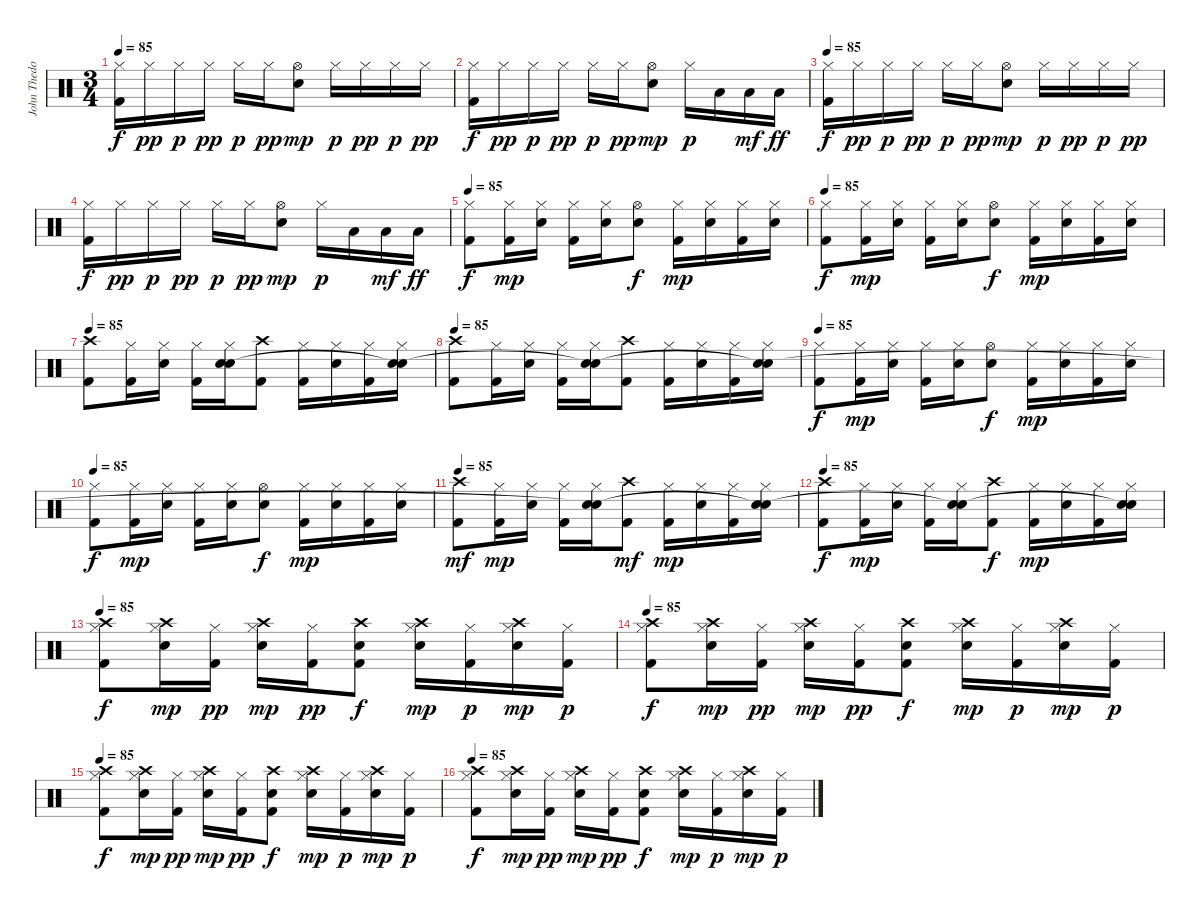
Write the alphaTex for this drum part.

\track ("John Thedore" "John Thedo") {instrument percussion}
\staff {score}
\articulation defaults
\ts (3 4)
\tempo 85
\clef neutral
\ks c
("Kick (hit) 2" "Hi-Hat (closed)").16{dy f volume 12} "Hi-Hat (closed)".16{dy pp} "Hi-Hat (closed)".16{dy p} "Hi-Hat (closed)".16{dy pp} "Hi-Hat (closed)".16{dy p} "Hi-Hat (closed)".16{dy pp} ("Hi-Hat (open)" "Electric Snare (hit)").8{dy mp} "Hi-Hat (closed)".16{dy p} "Hi-Hat (closed)".16{dy pp} "Hi-Hat (closed)".16{dy p} "Hi-Hat (closed)".16{dy pp} |
("Kick (hit) 2" "Hi-Hat (closed)").16{dy f} "Hi-Hat (closed)".16{dy pp} "Hi-Hat (closed)".16{dy p} "Hi-Hat (closed)".16{dy pp} "Hi-Hat (closed)".16{dy p} "Hi-Hat (closed)".16{dy pp} ("Hi-Hat (open)" "Electric Snare (hit)").8{dy mp} "Hi-Hat (closed)".16{dy p} "Low Tom (hit)".16 "Low Tom (hit)".16{dy mf} "Low Tom (hit)".16{dy ff} |
\tempo 85
("Kick (hit) 2" "Hi-Hat (closed)").16{dy f volume 12} "Hi-Hat (closed)".16{dy pp} "Hi-Hat (closed)".16{dy p} "Hi-Hat (closed)".16{dy pp} "Hi-Hat (closed)".16{dy p} "Hi-Hat (closed)".16{dy pp} ("Hi-Hat (open)" "Electric Snare (hit)").8{dy mp} "Hi-Hat (closed)".16{dy p} "Hi-Hat (closed)".16{dy pp} "Hi-Hat (closed)".16{dy p} "Hi-Hat (closed)".16{dy pp} |
("Kick (hit) 2" "Hi-Hat (closed)").16{dy f} "Hi-Hat (closed)".16{dy pp} "Hi-Hat (closed)".16{dy p} "Hi-Hat (closed)".16{dy pp} "Hi-Hat (closed)".16{dy p} "Hi-Hat (closed)".16{dy pp} ("Hi-Hat (open)" "Electric Snare (hit)").8{dy mp} "Hi-Hat (closed)".16{dy p} "Low Tom (hit)".16 "Low Tom (hit)".16{dy mf} "Low Tom (hit)".16{dy ff} |
\tempo 85
("Kick (hit) 2" "Hi-Hat (closed)").8{dy f volume 14} ("Hi-Hat (closed)" "Kick (hit) 2").16{dy mp} ("Hi-Hat (closed)" "Electric Snare (hit)").16 ("Hi-Hat (closed)" "Kick (hit) 2").16 ("Hi-Hat (closed)" "Electric Snare (hit)").16 ("Hi-Hat (open)" "Electric Snare (hit)").8{dy f} ("Hi-Hat (closed)" "Kick (hit) 2").16{dy mp} ("Hi-Hat (closed)" "Electric Snare (hit)").16 ("Hi-Hat (closed)" "Kick (hit) 2").16 ("Hi-Hat (closed)" "Electric Snare (hit)").16 |
\tempo 85
("Kick (hit) 2" "Hi-Hat (closed)").8{dy f} ("Hi-Hat (closed)" "Kick (hit) 2").16{dy mp} ("Hi-Hat (closed)" "Electric Snare (hit)").16 ("Hi-Hat (closed)" "Kick (hit) 2").16 ("Hi-Hat (closed)" "Electric Snare (hit)").16 ("Hi-Hat (open)" "Electric Snare (hit)").8{dy f} ("Hi-Hat (closed)" "Kick (hit) 2").16{dy mp} ("Hi-Hat (closed)" "Electric Snare (hit)").16 ("Hi-Hat (closed)" "Kick (hit) 2").16 ("Hi-Hat (closed)" "Electric Snare (hit)").16 |
\tempo 85
("Kick (hit) 2" "Crash high (hit)").8 ("Hi-Hat (closed)" "Kick (hit) 2").16 ("Hi-Hat (closed)" "Electric Snare (hit)").16 ("Hi-Hat (closed)" "Kick (hit) 2").16 ("Hi-Hat (closed)" "Electric Snare (hit)" "Snare (hit)").16 ("Kick (hit) 2" "Crash high (hit)").8 ("Hi-Hat (closed)" "Kick (hit) 2").16 ("Hi-Hat (closed)" "Electric Snare (hit)").16 ("Hi-Hat (closed)" "Kick (hit) 2").16 ("Hi-Hat (closed)" "Electric Snare (hit)" "Snare (hit)"{t}).16 |
\tempo 85
("Kick (hit) 2" "Crash high (hit)").8 ("Hi-Hat (closed)" "Kick (hit) 2").16 ("Hi-Hat (closed)" "Electric Snare (hit)").16 ("Hi-Hat (closed)" "Kick (hit) 2").16 ("Hi-Hat (closed)" "Electric Snare (hit)" "Snare (hit)"{t}).16 ("Kick (hit) 2" "Crash high (hit)").8 ("Hi-Hat (closed)" "Kick (hit) 2").16 ("Hi-Hat (closed)" "Electric Snare (hit)").16 ("Hi-Hat (closed)" "Kick (hit) 2").16 ("Hi-Hat (closed)" "Electric Snare (hit)" "Snare (hit)"{t}).16 |
\tempo 85
("Kick (hit) 2" "Hi-Hat (closed)").8{dy f} ("Hi-Hat (closed)" "Kick (hit) 2").16{dy mp} ("Hi-Hat (closed)" "Electric Snare (hit)").16 ("Hi-Hat (closed)" "Kick (hit) 2").16 ("Hi-Hat (closed)" "Electric Snare (hit)").16 ("Hi-Hat (open)" "Electric Snare (hit)").8{dy f} ("Hi-Hat (closed)" "Kick (hit) 2").16{dy mp} ("Hi-Hat (closed)" "Electric Snare (hit)").16 ("Hi-Hat (closed)" "Kick (hit) 2").16 ("Hi-Hat (closed)" "Electric Snare (hit)").16 |
\tempo 85
("Kick (hit) 2" "Hi-Hat (closed)").8{dy f} ("Hi-Hat (closed)" "Kick (hit) 2").16{dy mp} ("Hi-Hat (closed)" "Electric Snare (hit)").16 ("Hi-Hat (closed)" "Kick (hit) 2").16 ("Hi-Hat (closed)" "Electric Snare (hit)").16 ("Hi-Hat (open)" "Electric Snare (hit)").8{dy f} ("Hi-Hat (closed)" "Kick (hit) 2").16{dy mp} ("Hi-Hat (closed)" "Electric Snare (hit)").16 ("Hi-Hat (closed)" "Kick (hit) 2").16 ("Hi-Hat (closed)" "Electric Snare (hit)").16 |
\tempo 85
("Kick (hit) 2" "Crash high (hit)").8{dy mf} ("Hi-Hat (closed)" "Kick (hit) 2").16{dy mp} ("Hi-Hat (closed)" "Electric Snare (hit)").16 ("Hi-Hat (closed)" "Kick (hit) 2").16 ("Hi-Hat (closed)" "Electric Snare (hit)" "Snare (hit)"{t}).16 ("Kick (hit) 2" "Crash high (hit)").8{dy mf} ("Hi-Hat (closed)" "Kick (hit) 2").16{dy mp} ("Hi-Hat (closed)" "Electric Snare (hit)").16 ("Hi-Hat (closed)" "Kick (hit) 2").16 ("Hi-Hat (closed)" "Electric Snare (hit)" "Snare (hit)"{t}).16 |
\tempo 85
("Kick (hit) 2" "Crash high (hit)").8{dy f} ("Hi-Hat (closed)" "Kick (hit) 2").16{dy mp} ("Hi-Hat (closed)" "Electric Snare (hit)").16 ("Hi-Hat (closed)" "Kick (hit) 2").16 ("Hi-Hat (closed)" "Electric Snare (hit)" "Snare (hit)"{t}).16 ("Kick (hit) 2" "Crash high (hit)").8{dy f} ("Hi-Hat (closed)" "Kick (hit) 2").16{dy mp} ("Hi-Hat (closed)" "Electric Snare (hit)").16 ("Hi-Hat (closed)" "Kick (hit) 2").16 ("Hi-Hat (closed)" "Electric Snare (hit)" "Snare (hit)"{t}).16 |
\tempo 85
("Crash high (hit)" "Kick (hit) 2" "Hi-Hat (closed)").8{dy f volume 16} ("Crash high (hit)" "Hi-Hat (closed)" "Electric Snare (hit)").16{dy mp} ("Hi-Hat (closed)" "Kick (hit) 2").16{dy pp} ("Crash high (hit)" "Hi-Hat (closed)" "Electric Snare (hit)").16{dy mp} ("Hi-Hat (closed)" "Kick (hit) 2").16{dy pp} ("Crash high (hit)" "Electric Snare (hit)" "Kick (hit) 2").8{dy f} ("Crash high (hit)" "Hi-Hat (closed)" "Electric Snare (hit)").16{dy mp} ("Hi-Hat (closed)" "Kick (hit) 2").16{dy p} ("Crash high (hit)" "Hi-Hat (closed)" "Electric Snare (hit)").16{dy mp} ("Hi-Hat (closed)" "Kick (hit) 2").16{dy p} |
\tempo 85
("Crash high (hit)" "Kick (hit) 2" "Hi-Hat (closed)").8{dy f} ("Crash high (hit)" "Hi-Hat (closed)" "Electric Snare (hit)").16{dy mp} ("Hi-Hat (closed)" "Kick (hit) 2").16{dy pp} ("Crash high (hit)" "Hi-Hat (closed)" "Electric Snare (hit)").16{dy mp} ("Hi-Hat (closed)" "Kick (hit) 2").16{dy pp} ("Crash high (hit)" "Electric Snare (hit)" "Kick (hit) 2").8{dy f} ("Crash high (hit)" "Hi-Hat (closed)" "Electric Snare (hit)").16{dy mp} ("Hi-Hat (closed)" "Kick (hit) 2").16{dy p} ("Crash high (hit)" "Hi-Hat (closed)" "Electric Snare (hit)").16{dy mp} ("Hi-Hat (closed)" "Kick (hit) 2").16{dy p} |
\tempo 85
("Crash high (hit)" "Kick (hit) 2" "Hi-Hat (closed)").8{dy f} ("Crash high (hit)" "Hi-Hat (closed)" "Electric Snare (hit)").16{dy mp} ("Hi-Hat (closed)" "Kick (hit) 2").16{dy pp} ("Crash high (hit)" "Hi-Hat (closed)" "Electric Snare (hit)").16{dy mp} ("Hi-Hat (closed)" "Kick (hit) 2").16{dy pp} ("Crash high (hit)" "Electric Snare (hit)" "Kick (hit) 2").8{dy f} ("Crash high (hit)" "Hi-Hat (closed)" "Electric Snare (hit)").16{dy mp} ("Hi-Hat (closed)" "Kick (hit) 2").16{dy p} ("Crash high (hit)" "Hi-Hat (closed)" "Electric Snare (hit)").16{dy mp} ("Hi-Hat (closed)" "Kick (hit) 2").16{dy p} |
\tempo 85
("Crash high (hit)" "Kick (hit) 2" "Hi-Hat (closed)").8{dy f} ("Crash high (hit)" "Hi-Hat (closed)" "Electric Snare (hit)").16{dy mp} ("Hi-Hat (closed)" "Kick (hit) 2").16{dy pp} ("Crash high (hit)" "Hi-Hat (closed)" "Electric Snare (hit)").16{dy mp} ("Hi-Hat (closed)" "Kick (hit) 2").16{dy pp} ("Crash high (hit)" "Electric Snare (hit)" "Kick (hit) 2").8{dy f} ("Crash high (hit)" "Hi-Hat (closed)" "Electric Snare (hit)").16{dy mp} ("Hi-Hat (closed)" "Kick (hit) 2").16{dy p} ("Crash high (hit)" "Hi-Hat (closed)" "Electric Snare (hit)").16{dy mp} ("Hi-Hat (closed)" "Kick (hit) 2").16{dy p}
